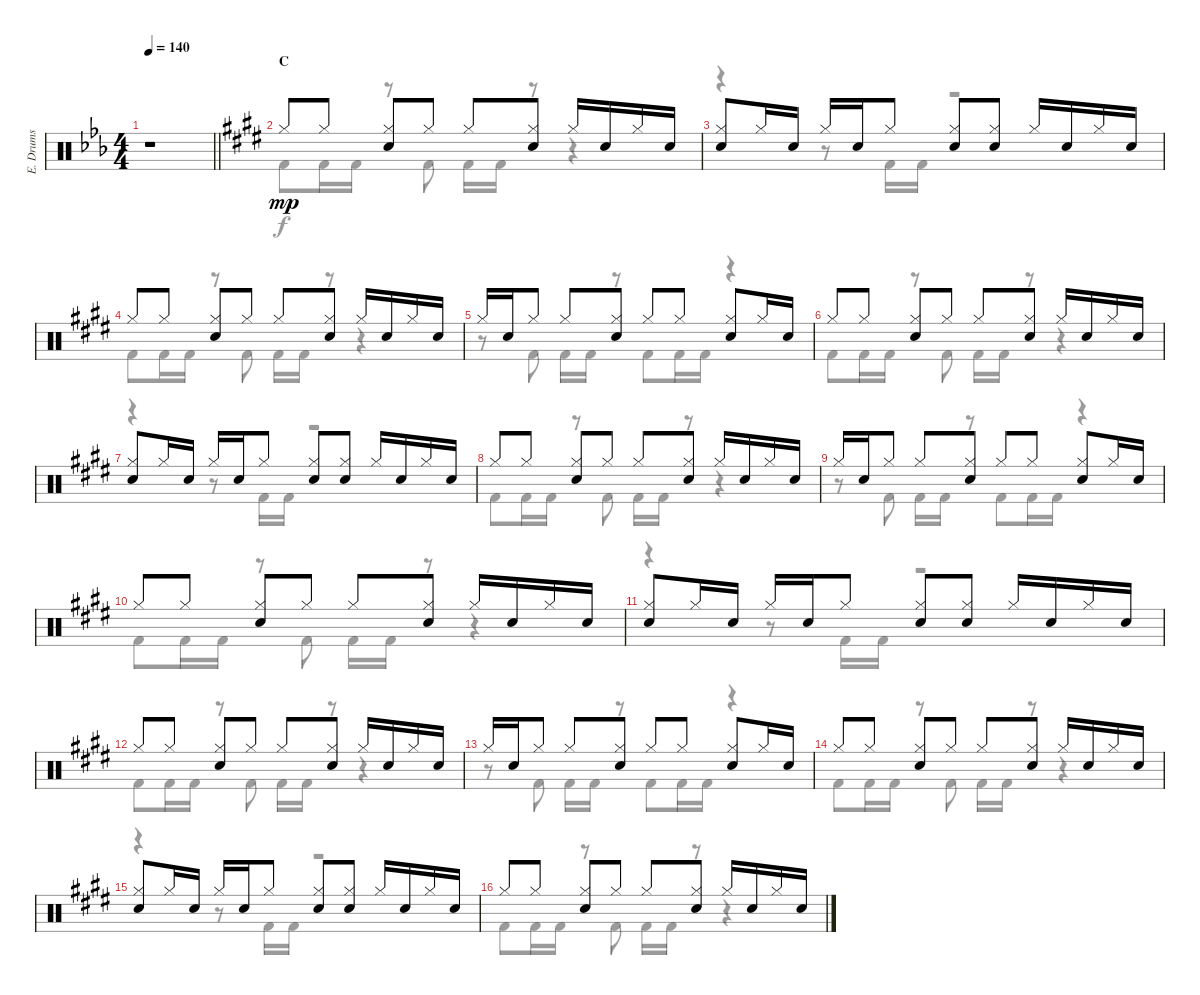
\track ("E. Drums" "E. Drums") {instrument percussion}
\staff {score}
\articulation defaults
\voice
\ts (4 4)
\tempo 140
\clef neutral
\barLineRight lightlight
\ks eb
r.1{dy f} |
\section ("" "C")
\ks e "Hi-Hat (closed)".8{dy mp} "Hi-Hat (closed)".8
("Hi-Hat (closed)" "Electric Snare (hit)").8 "Hi-Hat (closed)".8 "Hi-Hat (closed)".8 ("Hi-Hat (closed)" "Electric Snare (hit)").8 "Hi-Hat (closed)".16 "Electric Snare (hit)".16 "Hi-Hat (closed)".16 "Electric Snare (hit)".16 |
("Hi-Hat (closed)" "Electric Snare (hit)").8 "Hi-Hat (closed)".16 "Electric Snare (hit)".16 "Hi-Hat (closed)".16 "Electric Snare (hit)".16 "Hi-Hat (closed)".8 ("Hi-Hat (closed)" "Electric Snare (hit)").8 ("Hi-Hat (closed)" "Electric Snare (hit)").8 "Hi-Hat (closed)".16 "Electric Snare (hit)".16 "Hi-Hat (closed)".16 "Electric Snare (hit)".16 |
"Hi-Hat (closed)".8 "Hi-Hat (closed)".8 ("Hi-Hat (closed)" "Electric Snare (hit)").8 "Hi-Hat (closed)".8 "Hi-Hat (closed)".8 ("Hi-Hat (closed)" "Electric Snare (hit)").8 "Hi-Hat (closed)".16 "Electric Snare (hit)".16 "Hi-Hat (closed)".16 "Electric Snare (hit)".16 |
"Hi-Hat (closed)".16 "Electric Snare (hit)".16 "Hi-Hat (closed)".8 "Hi-Hat (closed)".8 ("Hi-Hat (closed)" "Electric Snare (hit)").8 "Hi-Hat (closed)".8 "Hi-Hat (closed)".8 ("Hi-Hat (closed)" "Electric Snare (hit)").8 "Hi-Hat (closed)".16 "Electric Snare (hit)".16 |
"Hi-Hat (closed)".8 "Hi-Hat (closed)".8 ("Hi-Hat (closed)" "Electric Snare (hit)").8 "Hi-Hat (closed)".8 "Hi-Hat (closed)".8 ("Hi-Hat (closed)" "Electric Snare (hit)").8 "Hi-Hat (closed)".16 "Electric Snare (hit)".16 "Hi-Hat (closed)".16 "Electric Snare (hit)".16 |
("Hi-Hat (closed)" "Electric Snare (hit)").8 "Hi-Hat (closed)".16 "Electric Snare (hit)".16 "Hi-Hat (closed)".16 "Electric Snare (hit)".16 "Hi-Hat (closed)".8 ("Hi-Hat (closed)" "Electric Snare (hit)").8 ("Hi-Hat (closed)" "Electric Snare (hit)").8 "Hi-Hat (closed)".16 "Electric Snare (hit)".16 "Hi-Hat (closed)".16 "Electric Snare (hit)".16 |
"Hi-Hat (closed)".8 "Hi-Hat (closed)".8 ("Hi-Hat (closed)" "Electric Snare (hit)").8 "Hi-Hat (closed)".8 "Hi-Hat (closed)".8 ("Hi-Hat (closed)" "Electric Snare (hit)").8 "Hi-Hat (closed)".16 "Electric Snare (hit)".16 "Hi-Hat (closed)".16 "Electric Snare (hit)".16 |
"Hi-Hat (closed)".16 "Electric Snare (hit)".16 "Hi-Hat (closed)".8 "Hi-Hat (closed)".8 ("Hi-Hat (closed)" "Electric Snare (hit)").8 "Hi-Hat (closed)".8 "Hi-Hat (closed)".8 ("Hi-Hat (closed)" "Electric Snare (hit)").8 "Hi-Hat (closed)".16 "Electric Snare (hit)".16 |
"Hi-Hat (closed)".8 "Hi-Hat (closed)".8 ("Hi-Hat (closed)" "Electric Snare (hit)").8 "Hi-Hat (closed)".8 "Hi-Hat (closed)".8 ("Hi-Hat (closed)" "Electric Snare (hit)").8 "Hi-Hat (closed)".16 "Electric Snare (hit)".16 "Hi-Hat (closed)".16 "Electric Snare (hit)".16 |
("Hi-Hat (closed)" "Electric Snare (hit)").8 "Hi-Hat (closed)".16 "Electric Snare (hit)".16 "Hi-Hat (closed)".16 "Electric Snare (hit)".16 "Hi-Hat (closed)".8 ("Hi-Hat (closed)" "Electric Snare (hit)").8 ("Hi-Hat (closed)" "Electric Snare (hit)").8 "Hi-Hat (closed)".16 "Electric Snare (hit)".16 "Hi-Hat (closed)".16 "Electric Snare (hit)".16 |
"Hi-Hat (closed)".8 "Hi-Hat (closed)".8 ("Hi-Hat (closed)" "Electric Snare (hit)").8 "Hi-Hat (closed)".8 "Hi-Hat (closed)".8 ("Hi-Hat (closed)" "Electric Snare (hit)").8 "Hi-Hat (closed)".16 "Electric Snare (hit)".16 "Hi-Hat (closed)".16 "Electric Snare (hit)".16 |
"Hi-Hat (closed)".16 "Electric Snare (hit)".16 "Hi-Hat (closed)".8 "Hi-Hat (closed)".8 ("Hi-Hat (closed)" "Electric Snare (hit)").8 "Hi-Hat (closed)".8 "Hi-Hat (closed)".8 ("Hi-Hat (closed)" "Electric Snare (hit)").8 "Hi-Hat (closed)".16 "Electric Snare (hit)".16 |
"Hi-Hat (closed)".8 "Hi-Hat (closed)".8 ("Hi-Hat (closed)" "Electric Snare (hit)").8 "Hi-Hat (closed)".8 "Hi-Hat (closed)".8 ("Hi-Hat (closed)" "Electric Snare (hit)").8 "Hi-Hat (closed)".16 "Electric Snare (hit)".16 "Hi-Hat (closed)".16 "Electric Snare (hit)".16 |
("Hi-Hat (closed)" "Electric Snare (hit)").8 "Hi-Hat (closed)".16 "Electric Snare (hit)".16 "Hi-Hat (closed)".16 "Electric Snare (hit)".16 "Hi-Hat (closed)".8 ("Hi-Hat (closed)" "Electric Snare (hit)").8 ("Hi-Hat (closed)" "Electric Snare (hit)").8 "Hi-Hat (closed)".16 "Electric Snare (hit)".16 "Hi-Hat (closed)".16 "Electric Snare (hit)".16 |
"Hi-Hat (closed)".8 "Hi-Hat (closed)".8 ("Hi-Hat (closed)" "Electric Snare (hit)").8 "Hi-Hat (closed)".8 "Hi-Hat (closed)".8 ("Hi-Hat (closed)" "Electric Snare (hit)").8 "Hi-Hat (closed)".16 "Electric Snare (hit)".16 "Hi-Hat (closed)".16 "Electric Snare (hit)".16
\voice
\clef neutral
\ottava regular
\simile none
\barLineRight lightlight
\ks eb
r.1{dy f} |
\ks e "Kick (hit) 2".8 "Kick (hit) 2".16 "Kick (hit) 2".16
r.8 "Kick (hit) 2".8 "Kick (hit) 2".16 "Kick (hit) 2".16 r.8 r.4 |
r.4 r.8 "Kick (hit) 2".16 "Kick (hit) 2".16 r.2 |
"Kick (hit) 2".8 "Kick (hit) 2".16 "Kick (hit) 2".16 r.8 "Kick (hit) 2".8 "Kick (hit) 2".16 "Kick (hit) 2".16 r.8 r.4 |
r.8 "Kick (hit) 2".8 "Kick (hit) 2".16 "Kick (hit) 2".16 r.8 "Kick (hit) 2".8 "Kick (hit) 2".16 "Kick (hit) 2".16 r.4 |
"Kick (hit) 2".8 "Kick (hit) 2".16 "Kick (hit) 2".16 r.8 "Kick (hit) 2".8 "Kick (hit) 2".16 "Kick (hit) 2".16 r.8 r.4 |
r.4 r.8 "Kick (hit) 2".16 "Kick (hit) 2".16 r.2 |
"Kick (hit) 2".8 "Kick (hit) 2".16 "Kick (hit) 2".16 r.8 "Kick (hit) 2".8 "Kick (hit) 2".16 "Kick (hit) 2".16 r.8 r.4 |
r.8 "Kick (hit) 2".8 "Kick (hit) 2".16 "Kick (hit) 2".16 r.8 "Kick (hit) 2".8 "Kick (hit) 2".16 "Kick (hit) 2".16 r.4 |
"Kick (hit) 2".8 "Kick (hit) 2".16 "Kick (hit) 2".16 r.8 "Kick (hit) 2".8 "Kick (hit) 2".16 "Kick (hit) 2".16 r.8 r.4 |
r.4 r.8 "Kick (hit) 2".16 "Kick (hit) 2".16 r.2 |
"Kick (hit) 2".8 "Kick (hit) 2".16 "Kick (hit) 2".16 r.8 "Kick (hit) 2".8 "Kick (hit) 2".16 "Kick (hit) 2".16 r.8 r.4 |
r.8 "Kick (hit) 2".8 "Kick (hit) 2".16 "Kick (hit) 2".16 r.8 "Kick (hit) 2".8 "Kick (hit) 2".16 "Kick (hit) 2".16 r.4 |
"Kick (hit) 2".8 "Kick (hit) 2".16 "Kick (hit) 2".16 r.8 "Kick (hit) 2".8 "Kick (hit) 2".16 "Kick (hit) 2".16 r.8 r.4 |
r.4 r.8 "Kick (hit) 2".16 "Kick (hit) 2".16 r.2 |
"Kick (hit) 2".8 "Kick (hit) 2".16 "Kick (hit) 2".16 r.8 "Kick (hit) 2".8 "Kick (hit) 2".16 "Kick (hit) 2".16 r.8 r.4
